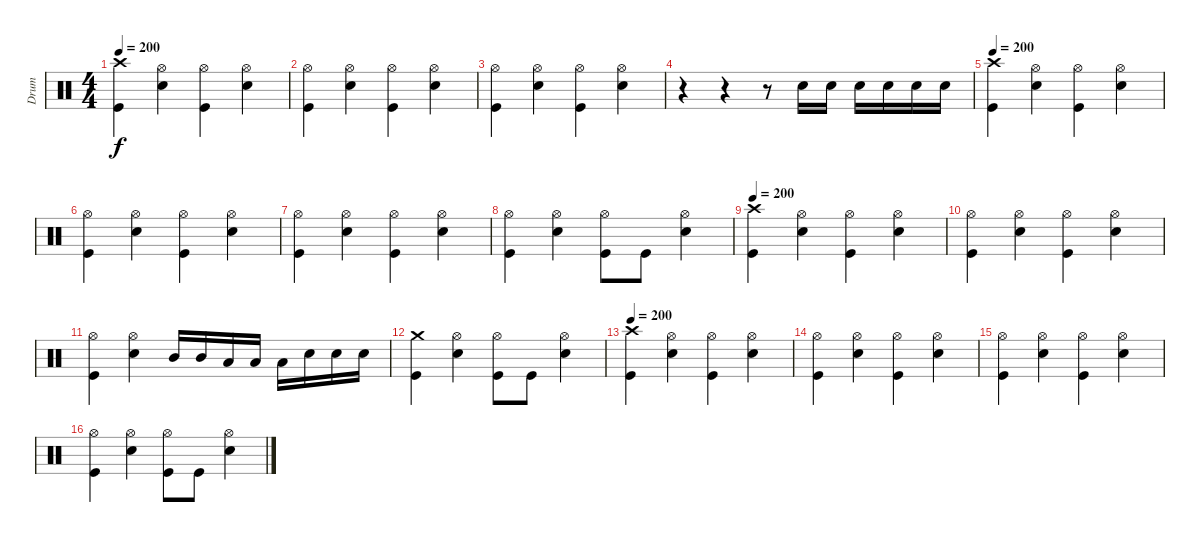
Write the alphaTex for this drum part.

\track ("Drum" "Drum") {instrument percussion}
\staff {score}
\articulation defaults
\ts (4 4)
\tempo 200
\clef neutral
\ks c
("Crash high (hit)" "Kick (hit)").4{dy f} ("Hi-Hat (open)" "Electric Snare (hit)").4 ("Hi-Hat (open)" "Kick (hit)").4 ("Hi-Hat (open)" "Electric Snare (hit)").4 |
("Hi-Hat (open)" "Kick (hit)").4 ("Hi-Hat (open)" "Electric Snare (hit)").4 ("Hi-Hat (open)" "Kick (hit)").4 ("Hi-Hat (open)" "Electric Snare (hit)").4 |
("Hi-Hat (open)" "Kick (hit)").4 ("Hi-Hat (open)" "Electric Snare (hit)").4 ("Hi-Hat (open)" "Kick (hit)").4 ("Hi-Hat (open)" "Electric Snare (hit)").4 |
r.4 r.4 r.8 "Electric Snare (hit)".16 "Electric Snare (hit)".16 "Electric Snare (hit)".16 "Electric Snare (hit)".16 "Electric Snare (hit)".16 "Electric Snare (hit)".16 |
\tempo 200
("Crash high (hit)" "Kick (hit)").4 ("Hi-Hat (open)" "Electric Snare (hit)").4 ("Hi-Hat (open)" "Kick (hit)").4 ("Hi-Hat (open)" "Electric Snare (hit)").4 |
("Hi-Hat (open)" "Kick (hit)").4 ("Hi-Hat (open)" "Electric Snare (hit)").4 ("Hi-Hat (open)" "Kick (hit)").4 ("Hi-Hat (open)" "Electric Snare (hit)").4 |
("Hi-Hat (open)" "Kick (hit)").4 ("Hi-Hat (open)" "Electric Snare (hit)").4 ("Hi-Hat (open)" "Kick (hit)").4 ("Hi-Hat (open)" "Electric Snare (hit)").4 |
("Hi-Hat (open)" "Kick (hit)").4 ("Hi-Hat (open)" "Electric Snare (hit)").4 ("Hi-Hat (open)" "Kick (hit)").8 "Kick (hit)".8 ("Hi-Hat (open)" "Electric Snare (hit)").4 |
\tempo 200
("Crash high (hit)" "Kick (hit)").4 ("Hi-Hat (open)" "Electric Snare (hit)").4 ("Hi-Hat (open)" "Kick (hit)").4 ("Hi-Hat (open)" "Electric Snare (hit)").4 |
("Hi-Hat (open)" "Kick (hit)").4 ("Hi-Hat (open)" "Electric Snare (hit)").4 ("Hi-Hat (open)" "Kick (hit)").4 ("Hi-Hat (open)" "Electric Snare (hit)").4 |
("Hi-Hat (open)" "Kick (hit)").4 ("Hi-Hat (open)" "Electric Snare (hit)").4 "Mid Tom (hit)".16 "Mid Tom (hit)".16 "Low Tom (hit)".16 "Low Tom (hit)".16 "Low Tom (hit)".16 "Electric Snare (hit)".16 "Electric Snare (hit)".16 "Electric Snare (hit)".16 |
("Crash medium (hit)" "Kick (hit)").4 ("Hi-Hat (open)" "Electric Snare (hit)").4 ("Hi-Hat (open)" "Kick (hit)").8 "Kick (hit)".8 ("Hi-Hat (open)" "Electric Snare (hit)").4 |
\tempo 200
("Crash high (hit)" "Kick (hit)").4 ("Hi-Hat (open)" "Electric Snare (hit)").4 ("Hi-Hat (open)" "Kick (hit)").4 ("Hi-Hat (open)" "Electric Snare (hit)").4 |
("Hi-Hat (open)" "Kick (hit)").4 ("Hi-Hat (open)" "Electric Snare (hit)").4 ("Hi-Hat (open)" "Kick (hit)").4 ("Hi-Hat (open)" "Electric Snare (hit)").4 |
("Hi-Hat (open)" "Kick (hit)").4 ("Hi-Hat (open)" "Electric Snare (hit)").4 ("Hi-Hat (open)" "Kick (hit)").4 ("Hi-Hat (open)" "Electric Snare (hit)").4 |
("Hi-Hat (open)" "Kick (hit)").4 ("Hi-Hat (open)" "Electric Snare (hit)").4 ("Hi-Hat (open)" "Kick (hit)").8 "Kick (hit)".8 ("Hi-Hat (open)" "Electric Snare (hit)").4
